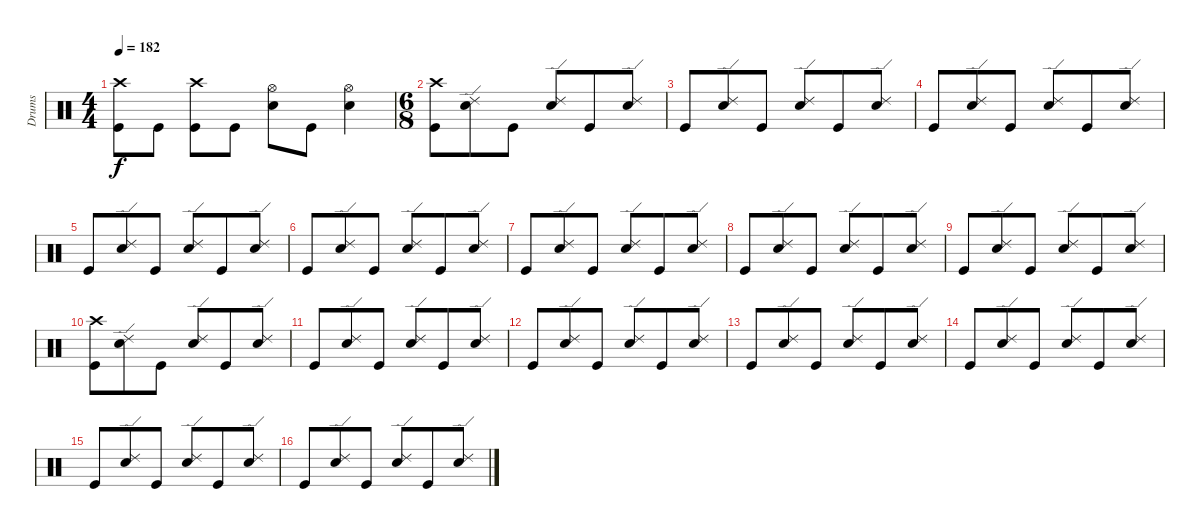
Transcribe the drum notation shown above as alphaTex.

\track ("Drums" "Drums") {instrument percussion}
\staff {score}
\articulation defaults
\ts (4 4)
\tempo 182
\clef neutral
\ks c
("Crash high (hit)" "Kick (hit)").8{dy f} "Kick (hit)".8 ("Crash high (hit)" "Kick (hit)").8 "Kick (hit)".8 ("Hi-Hat (open)" "Electric Snare (hit)").8 "Kick (hit)".8 ("Hi-Hat (open)" "Electric Snare (hit)").4 |
\ts (6 8)
("Crash high (hit)" "Kick (hit)").8 ("Ride (edge) 2" "Electric Snare (hit)").8 "Kick (hit)".8 ("Ride (edge) 2" "Electric Snare (hit)").8 "Kick (hit)".8 ("Ride (edge) 2" "Electric Snare (hit)").8 |
"Kick (hit)".8 ("Ride (edge) 2" "Electric Snare (hit)").8 "Kick (hit)".8 ("Ride (edge) 2" "Electric Snare (hit)").8 "Kick (hit)".8 ("Ride (edge) 2" "Electric Snare (hit)").8 |
"Kick (hit)".8 ("Ride (edge) 2" "Electric Snare (hit)").8 "Kick (hit)".8 ("Ride (edge) 2" "Electric Snare (hit)").8 "Kick (hit)".8 ("Ride (edge) 2" "Electric Snare (hit)").8 |
"Kick (hit)".8 ("Ride (edge) 2" "Electric Snare (hit)").8 "Kick (hit)".8 ("Ride (edge) 2" "Electric Snare (hit)").8 "Kick (hit)".8 ("Ride (edge) 2" "Electric Snare (hit)").8 |
"Kick (hit)".8 ("Ride (edge) 2" "Electric Snare (hit)").8 "Kick (hit)".8 ("Ride (edge) 2" "Electric Snare (hit)").8 "Kick (hit)".8 ("Ride (edge) 2" "Electric Snare (hit)").8 |
"Kick (hit)".8 ("Ride (edge) 2" "Electric Snare (hit)").8 "Kick (hit)".8 ("Ride (edge) 2" "Electric Snare (hit)").8 "Kick (hit)".8 ("Ride (edge) 2" "Electric Snare (hit)").8 |
"Kick (hit)".8 ("Ride (edge) 2" "Electric Snare (hit)").8 "Kick (hit)".8 ("Ride (edge) 2" "Electric Snare (hit)").8 "Kick (hit)".8 ("Ride (edge) 2" "Electric Snare (hit)").8 |
"Kick (hit)".8 ("Ride (edge) 2" "Electric Snare (hit)").8 "Kick (hit)".8 ("Ride (edge) 2" "Electric Snare (hit)").8 "Kick (hit)".8 ("Ride (edge) 2" "Electric Snare (hit)").8 |
("Crash high (hit)" "Kick (hit)").8 ("Ride (edge) 2" "Electric Snare (hit)").8 "Kick (hit)".8 ("Ride (edge) 2" "Electric Snare (hit)").8 "Kick (hit)".8 ("Ride (edge) 2" "Electric Snare (hit)").8 |
"Kick (hit)".8 ("Ride (edge) 2" "Electric Snare (hit)").8 "Kick (hit)".8 ("Ride (edge) 2" "Electric Snare (hit)").8 "Kick (hit)".8 ("Ride (edge) 2" "Electric Snare (hit)").8 |
"Kick (hit)".8 ("Ride (edge) 2" "Electric Snare (hit)").8 "Kick (hit)".8 ("Ride (edge) 2" "Electric Snare (hit)").8 "Kick (hit)".8 ("Ride (edge) 2" "Electric Snare (hit)").8 |
"Kick (hit)".8 ("Ride (edge) 2" "Electric Snare (hit)").8 "Kick (hit)".8 ("Ride (edge) 2" "Electric Snare (hit)").8 "Kick (hit)".8 ("Ride (edge) 2" "Electric Snare (hit)").8 |
"Kick (hit)".8 ("Ride (edge) 2" "Electric Snare (hit)").8 "Kick (hit)".8 ("Ride (edge) 2" "Electric Snare (hit)").8 "Kick (hit)".8 ("Ride (edge) 2" "Electric Snare (hit)").8 |
"Kick (hit)".8 ("Ride (edge) 2" "Electric Snare (hit)").8 "Kick (hit)".8 ("Ride (edge) 2" "Electric Snare (hit)").8 "Kick (hit)".8 ("Ride (edge) 2" "Electric Snare (hit)").8 |
"Kick (hit)".8 ("Ride (edge) 2" "Electric Snare (hit)").8 "Kick (hit)".8 ("Ride (edge) 2" "Electric Snare (hit)").8 "Kick (hit)".8 ("Ride (edge) 2" "Electric Snare (hit)").8
